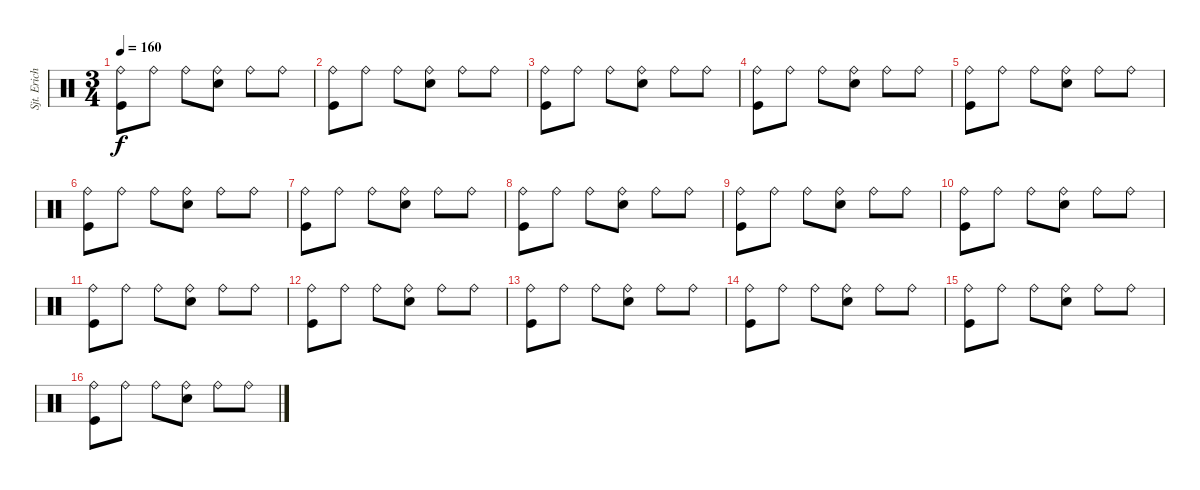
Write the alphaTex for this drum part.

\track ("Sjt. Erichsen" "Sjt. Erich") {instrument percussion}
\staff {score}
\articulation defaults
\ts (3 4)
\tempo 160
\clef neutral
\ks c
("Ride (bell)" "Kick (hit)").8{dy f} "Ride (bell)".8 "Ride (bell)".8 ("Ride (bell)" "Electric Snare (hit)").8 "Ride (bell)".8 "Ride (bell)".8 |
("Ride (bell)" "Kick (hit)").8 "Ride (bell)".8 "Ride (bell)".8 ("Ride (bell)" "Electric Snare (hit)").8 "Ride (bell)".8 "Ride (bell)".8 |
("Ride (bell)" "Kick (hit)").8 "Ride (bell)".8 "Ride (bell)".8 ("Ride (bell)" "Electric Snare (hit)").8 "Ride (bell)".8 "Ride (bell)".8 |
("Ride (bell)" "Kick (hit)").8{volume 12} "Ride (bell)".8 "Ride (bell)".8 ("Ride (bell)" "Electric Snare (hit)").8 "Ride (bell)".8 "Ride (bell)".8 |
("Ride (bell)" "Kick (hit)").8 "Ride (bell)".8 "Ride (bell)".8 ("Ride (bell)" "Electric Snare (hit)").8 "Ride (bell)".8 "Ride (bell)".8 |
("Ride (bell)" "Kick (hit)").8 "Ride (bell)".8 "Ride (bell)".8 ("Ride (bell)" "Electric Snare (hit)").8 "Ride (bell)".8 "Ride (bell)".8 |
("Ride (bell)" "Kick (hit)").8 "Ride (bell)".8 "Ride (bell)".8 ("Ride (bell)" "Electric Snare (hit)").8 "Ride (bell)".8 "Ride (bell)".8 |
("Ride (bell)" "Kick (hit)").8 "Ride (bell)".8 "Ride (bell)".8 ("Ride (bell)" "Electric Snare (hit)").8 "Ride (bell)".8 "Ride (bell)".8 |
("Ride (bell)" "Kick (hit)").8 "Ride (bell)".8 "Ride (bell)".8 ("Ride (bell)" "Electric Snare (hit)").8 "Ride (bell)".8 "Ride (bell)".8 |
("Ride (bell)" "Kick (hit)").8{volume 7} "Ride (bell)".8 "Ride (bell)".8 ("Ride (bell)" "Electric Snare (hit)").8 "Ride (bell)".8 "Ride (bell)".8 |
("Ride (bell)" "Kick (hit)").8 "Ride (bell)".8 "Ride (bell)".8 ("Ride (bell)" "Electric Snare (hit)").8 "Ride (bell)".8 "Ride (bell)".8 |
("Ride (bell)" "Kick (hit)").8 "Ride (bell)".8 "Ride (bell)".8 ("Ride (bell)" "Electric Snare (hit)").8 "Ride (bell)".8 "Ride (bell)".8 |
("Ride (bell)" "Kick (hit)").8 "Ride (bell)".8 "Ride (bell)".8 ("Ride (bell)" "Electric Snare (hit)").8 "Ride (bell)".8 "Ride (bell)".8 |
("Ride (bell)" "Kick (hit)").8 "Ride (bell)".8 "Ride (bell)".8 ("Ride (bell)" "Electric Snare (hit)").8 "Ride (bell)".8 "Ride (bell)".8 |
("Ride (bell)" "Kick (hit)").8 "Ride (bell)".8 "Ride (bell)".8 ("Ride (bell)" "Electric Snare (hit)").8 "Ride (bell)".8 "Ride (bell)".8 |
("Ride (bell)" "Kick (hit)").8{volume 4} "Ride (bell)".8 "Ride (bell)".8 ("Ride (bell)" "Electric Snare (hit)").8 "Ride (bell)".8 "Ride (bell)".8
